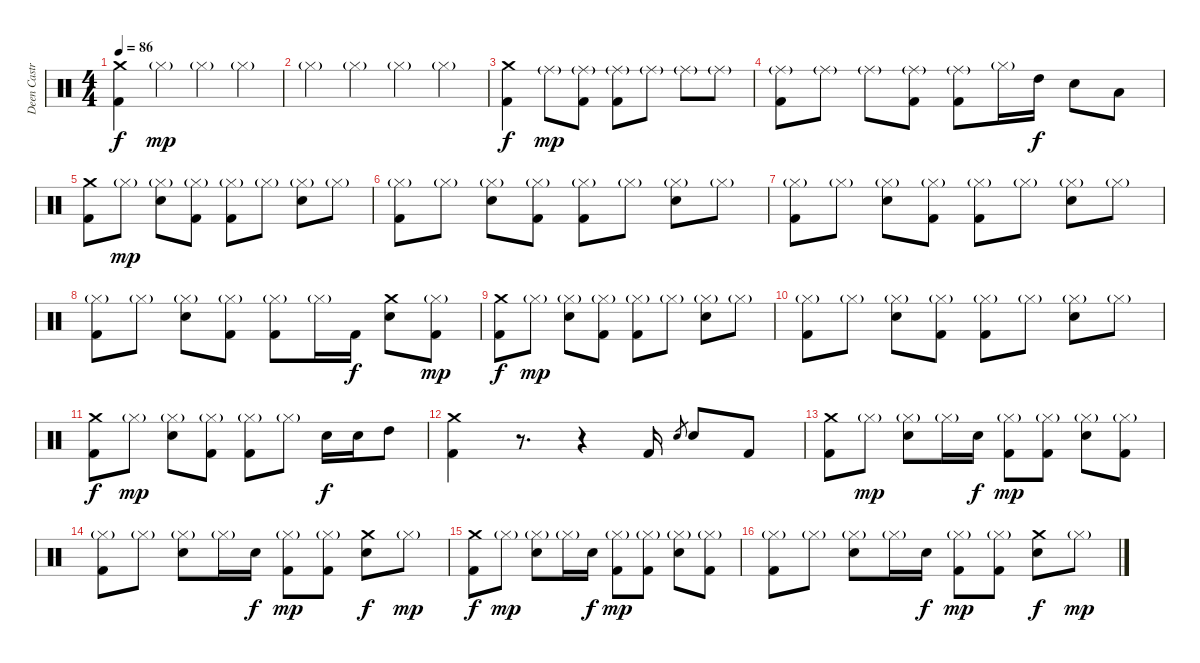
\track ("Deen Castronovo" "Deen Castr") {instrument percussion}
\staff {score}
\articulation defaults
\ts (4 4)
\tempo 86
\clef neutral
\ks c
("Crash medium (hit)" "Kick (hit) 2").4{dy f} "Hi-Hat (closed)"{g}.4{dy mp} "Hi-Hat (closed)"{g}.4 "Hi-Hat (closed)"{g}.4 |
"Hi-Hat (closed)"{g}.4 "Hi-Hat (closed)"{g}.4 "Hi-Hat (closed)"{g}.4 "Hi-Hat (closed)"{g}.4 |
("Crash medium (hit)" "Kick (hit) 2").4{dy f} "Ride (middle)"{g}.8{dy mp} ("Ride (middle)"{g} "Kick (hit) 2").8 ("Ride (middle)"{g} "Kick (hit) 2").8 "Ride (middle)"{g}.8 "Ride (middle)"{g}.8 "Ride (middle)"{g}.8 |
("Ride (middle)"{g} "Kick (hit) 2").8 "Ride (middle)"{g}.8 "Ride (middle)"{g}.8 ("Ride (middle)"{g} "Kick (hit) 2").8 ("Ride (middle)"{g} "Kick (hit) 2").8 "Hi-Hat (closed)"{g}.16 "High Tom (hit)".16{dy f} "Electric Snare (hit)".8 "Low Tom (hit)".8 |
("Crash medium (hit)" "Kick (hit) 2").8 "Hi-Hat (closed)"{g}.8{dy mp} ("Hi-Hat (closed)"{g} "Electric Snare (hit)").8 ("Hi-Hat (closed)"{g} "Kick (hit) 2").8 ("Hi-Hat (closed)"{g} "Kick (hit) 2").8 "Hi-Hat (closed)"{g}.8 ("Hi-Hat (closed)"{g} "Electric Snare (hit)").8 "Hi-Hat (closed)"{g}.8 |
("Hi-Hat (closed)"{g} "Kick (hit) 2").8 "Hi-Hat (closed)"{g}.8 ("Hi-Hat (closed)"{g} "Electric Snare (hit)").8 ("Hi-Hat (closed)"{g} "Kick (hit) 2").8 ("Hi-Hat (closed)"{g} "Kick (hit) 2").8 "Hi-Hat (closed)"{g}.8 ("Hi-Hat (closed)"{g} "Electric Snare (hit)").8 "Hi-Hat (closed)"{g}.8 |
("Hi-Hat (closed)"{g} "Kick (hit) 2").8 "Hi-Hat (closed)"{g}.8 ("Hi-Hat (closed)"{g} "Electric Snare (hit)").8 ("Hi-Hat (closed)"{g} "Kick (hit) 2").8 ("Hi-Hat (closed)"{g} "Kick (hit) 2").8 "Hi-Hat (closed)"{g}.8 ("Hi-Hat (closed)"{g} "Electric Snare (hit)").8 "Hi-Hat (closed)"{g}.8 |
("Hi-Hat (closed)"{g} "Kick (hit) 2").8 "Hi-Hat (closed)"{g}.8 ("Hi-Hat (closed)"{g} "Electric Snare (hit)").8 ("Hi-Hat (closed)"{g} "Kick (hit) 2").8 ("Hi-Hat (closed)"{g} "Kick (hit) 2").8 "Hi-Hat (closed)"{g}.16 "Kick (hit) 2".16{dy f} ("Crash medium (hit)" "Electric Snare (hit)").8 ("Hi-Hat (closed)"{g} "Kick (hit) 2").8{dy mp} |
("Crash medium (hit)" "Kick (hit) 2").8{dy f} "Hi-Hat (closed)"{g}.8{dy mp} ("Hi-Hat (closed)"{g} "Electric Snare (hit)").8 ("Hi-Hat (closed)"{g} "Kick (hit) 2").8 ("Hi-Hat (closed)"{g} "Kick (hit) 2").8 "Hi-Hat (closed)"{g}.8 ("Hi-Hat (closed)"{g} "Electric Snare (hit)").8 "Hi-Hat (closed)"{g}.8 |
("Hi-Hat (closed)"{g} "Kick (hit) 2").8 "Hi-Hat (closed)"{g}.8 ("Hi-Hat (closed)"{g} "Electric Snare (hit)").8 ("Hi-Hat (closed)"{g} "Kick (hit) 2").8 ("Hi-Hat (closed)"{g} "Kick (hit) 2").8 "Hi-Hat (closed)"{g}.8 ("Hi-Hat (closed)"{g} "Electric Snare (hit)").8 "Hi-Hat (closed)"{g}.8 |
("Crash medium (hit)" "Kick (hit) 2").8{dy f} "Hi-Hat (closed)"{g}.8{dy mp} ("Hi-Hat (closed)"{g} "Electric Snare (hit)").8 ("Hi-Hat (closed)"{g} "Kick (hit) 2").8 ("Hi-Hat (closed)"{g} "Kick (hit) 2").8 "Hi-Hat (closed)"{g}.8 "Electric Snare (hit)".16{dy f} "Electric Snare (hit)".16 "High Tom (hit)".8 |
("Crash medium (hit)" "Kick (hit) 2").4 r.8{d} r.4 "Kick (hit) 2".16 "Electric Snare (hit)".8{gr} "Electric Snare (hit)".8 "Kick (hit) 2".8 |
("Crash medium (hit)" "Kick (hit) 2").8 "Hi-Hat (closed)"{g}.8{dy mp} ("Hi-Hat (closed)"{g} "Electric Snare (hit)").8 "Hi-Hat (closed)"{g}.16 "Electric Snare (hit)".16{dy f} ("Hi-Hat (closed)"{g} "Kick (hit) 2").8{dy mp} ("Hi-Hat (closed)"{g} "Kick (hit) 2").8 ("Hi-Hat (closed)"{g} "Electric Snare (hit)").8 ("Hi-Hat (closed)"{g} "Kick (hit) 2").8 |
("Hi-Hat (closed)"{g} "Kick (hit) 2").8 "Hi-Hat (closed)"{g}.8 ("Hi-Hat (closed)"{g} "Electric Snare (hit)").8 "Hi-Hat (closed)"{g}.16 "Electric Snare (hit)".16{dy f} ("Hi-Hat (closed)"{g} "Kick (hit) 2").8{dy mp} ("Hi-Hat (closed)"{g} "Kick (hit) 2").8 ("Crash medium (hit)" "Electric Snare (hit)").8{dy f} "Hi-Hat (closed)"{g}.8{dy mp} |
("Crash medium (hit)" "Kick (hit) 2").8{dy f} "Hi-Hat (closed)"{g}.8{dy mp} ("Hi-Hat (closed)"{g} "Electric Snare (hit)").8 "Hi-Hat (closed)"{g}.16 "Electric Snare (hit)".16{dy f} ("Hi-Hat (closed)"{g} "Kick (hit) 2").8{dy mp} ("Hi-Hat (closed)"{g} "Kick (hit) 2").8 ("Hi-Hat (closed)"{g} "Electric Snare (hit)").8 ("Hi-Hat (closed)"{g} "Kick (hit) 2").8 |
("Hi-Hat (closed)"{g} "Kick (hit) 2").8 "Hi-Hat (closed)"{g}.8 ("Hi-Hat (closed)"{g} "Electric Snare (hit)").8 "Hi-Hat (closed)"{g}.16 "Electric Snare (hit)".16{dy f} ("Hi-Hat (closed)"{g} "Kick (hit) 2").8{dy mp} ("Hi-Hat (closed)"{g} "Kick (hit) 2").8 ("Crash medium (hit)" "Electric Snare (hit)").8{dy f} "Hi-Hat (closed)"{g}.8{dy mp}
